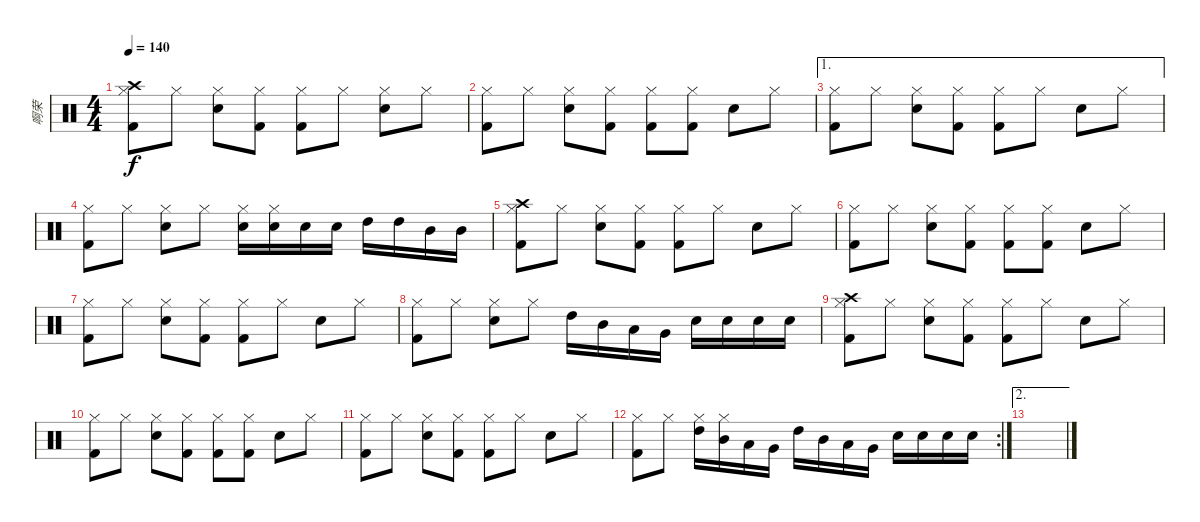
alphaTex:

\track ("啊荣" "啊荣") {instrument percussion}
\staff {score}
\articulation defaults
\ts (4 4)
\tempo 140
\clef neutral
\ks c
("Kick (hit) 2" "Crash high (hit)" "Hi-Hat (closed)").8{dy f} "Hi-Hat (closed)".8 ("Hi-Hat (closed)" "Electric Snare (hit)").8 ("Hi-Hat (closed)" "Kick (hit) 2").8 ("Hi-Hat (closed)" "Kick (hit) 2").8 "Hi-Hat (closed)".8 ("Hi-Hat (closed)" "Electric Snare (hit)").8 "Hi-Hat (closed)".8 |
("Kick (hit) 2" "Hi-Hat (closed)").8 "Hi-Hat (closed)".8 ("Hi-Hat (closed)" "Electric Snare (hit)").8 ("Hi-Hat (closed)" "Kick (hit) 2").8 ("Hi-Hat (closed)" "Kick (hit) 2").8 ("Hi-Hat (closed)" "Kick (hit) 2").8 "Electric Snare (hit)".8 "Hi-Hat (closed)".8 |
\ae 1
("Kick (hit) 2" "Hi-Hat (closed)").8 "Hi-Hat (closed)".8 ("Hi-Hat (closed)" "Electric Snare (hit)").8 ("Hi-Hat (closed)" "Kick (hit) 2").8 ("Hi-Hat (closed)" "Kick (hit) 2").8 "Hi-Hat (closed)".8 "Electric Snare (hit)".8 "Hi-Hat (closed)".8 |
("Kick (hit) 2" "Hi-Hat (closed)").8 "Hi-Hat (closed)".8 ("Hi-Hat (closed)" "Electric Snare (hit)").8 "Hi-Hat (closed)".8 ("Hi-Hat (closed)" "Electric Snare (hit)").16 ("Hi-Hat (closed)" "Electric Snare (hit)").16 "Electric Snare (hit)".16 "Electric Snare (hit)".16 "High Tom (hit)".16 "High Tom (hit)".16 "Mid Tom (hit)".16 "Mid Tom (hit)".16 |
("Kick (hit) 2" "Crash high (hit)" "Hi-Hat (closed)").8 "Hi-Hat (closed)".8 ("Hi-Hat (closed)" "Electric Snare (hit)").8 ("Hi-Hat (closed)" "Kick (hit) 2").8 ("Hi-Hat (closed)" "Kick (hit) 2").8 "Hi-Hat (closed)".8 "Electric Snare (hit)".8 "Hi-Hat (closed)".8 |
("Kick (hit) 2" "Hi-Hat (closed)").8 "Hi-Hat (closed)".8 ("Hi-Hat (closed)" "Electric Snare (hit)").8 ("Hi-Hat (closed)" "Kick (hit) 2").8 ("Hi-Hat (closed)" "Kick (hit) 2").8 ("Hi-Hat (closed)" "Kick (hit) 2").8 "Electric Snare (hit)".8 "Hi-Hat (closed)".8 |
("Kick (hit) 2" "Hi-Hat (closed)").8 "Hi-Hat (closed)".8 ("Hi-Hat (closed)" "Electric Snare (hit)").8 ("Hi-Hat (closed)" "Kick (hit) 2").8 ("Hi-Hat (closed)" "Kick (hit) 2").8 "Hi-Hat (closed)".8 "Electric Snare (hit)".8 "Hi-Hat (closed)".8 |
("Kick (hit) 2" "Hi-Hat (closed)").8 "Hi-Hat (closed)".8 ("Hi-Hat (closed)" "Electric Snare (hit)").8 "Hi-Hat (closed)".8 "High Tom (hit)".16 "Mid Tom (hit)".16 "Low Tom (hit)".16 "Very Low Tom (hit)".16 "Electric Snare (hit)".16 "Electric Snare (hit)".16 "Electric Snare (hit)".16 "Electric Snare (hit)".16 |
("Kick (hit) 2" "Crash high (hit)" "Hi-Hat (closed)").8 "Hi-Hat (closed)".8 ("Hi-Hat (closed)" "Electric Snare (hit)").8 ("Hi-Hat (closed)" "Kick (hit) 2").8 ("Hi-Hat (closed)" "Kick (hit) 2").8 "Hi-Hat (closed)".8 "Electric Snare (hit)".8 "Hi-Hat (closed)".8 |
("Kick (hit) 2" "Hi-Hat (closed)").8 "Hi-Hat (closed)".8 ("Hi-Hat (closed)" "Electric Snare (hit)").8 ("Hi-Hat (closed)" "Kick (hit) 2").8 ("Hi-Hat (closed)" "Kick (hit) 2").8 ("Hi-Hat (closed)" "Kick (hit) 2").8 "Electric Snare (hit)".8 "Hi-Hat (closed)".8 |
("Kick (hit) 2" "Hi-Hat (closed)").8 "Hi-Hat (closed)".8 ("Hi-Hat (closed)" "Electric Snare (hit)").8 ("Hi-Hat (closed)" "Kick (hit) 2").8 ("Hi-Hat (closed)" "Kick (hit) 2").8 "Hi-Hat (closed)".8 "Electric Snare (hit)".8 "Hi-Hat (closed)".8 |
\rc 2
("Kick (hit) 2" "Hi-Hat (closed)").8 "Hi-Hat (closed)".8 ("Hi-Hat (closed)" "High Tom (hit)").16 ("Hi-Hat (closed)" "Mid Tom (hit)").16 "Low Tom (hit)".16 "Very Low Tom (hit)".16 "High Tom (hit)".16 "Mid Tom (hit)".16 "Low Tom (hit)".16 "Very Low Tom (hit)".16 "Electric Snare (hit)".16 "Electric Snare (hit)".16 "Electric Snare (hit)".16 "Electric Snare (hit)".16 |
\ae 2
